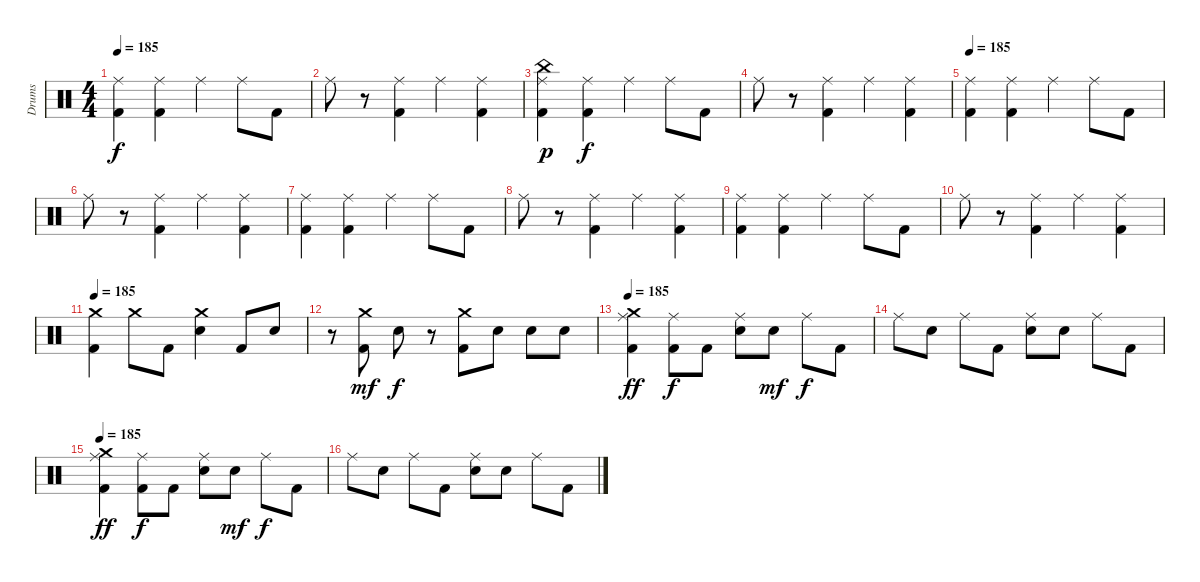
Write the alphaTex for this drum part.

\track ("Drums" "Drums") {instrument percussion}
\staff {score}
\articulation defaults
\ts (4 4)
\tempo 185
\clef neutral
\ks c
("Ride (middle)" "Kick (hit) 2").4{dy f} ("Ride (middle)" "Kick (hit) 2").4 "Ride (middle)".4 "Ride (middle)".8 "Kick (hit) 2".8 |
"Ride (middle)".8 r.8 ("Ride (middle)" "Kick (hit) 2").4 "Ride (middle)".4 ("Ride (middle)" "Kick (hit) 2").4 |
("Ride (middle)" "China (hit)" "Kick (hit) 2").4{dy p} ("Ride (middle)" "Kick (hit) 2").4{dy f} "Ride (middle)".4 "Ride (middle)".8 "Kick (hit) 2".8 |
"Ride (middle)".8 r.8 ("Ride (middle)" "Kick (hit) 2").4 "Ride (middle)".4 ("Ride (middle)" "Kick (hit) 2").4 |
\tempo 185
("Ride (middle)" "Kick (hit) 2").4 ("Ride (middle)" "Kick (hit) 2").4 "Ride (middle)".4 "Ride (middle)".8 "Kick (hit) 2".8 |
"Ride (middle)".8 r.8 ("Ride (middle)" "Kick (hit) 2").4 "Ride (middle)".4 ("Ride (middle)" "Kick (hit) 2").4 |
("Ride (middle)" "Kick (hit) 2").4 ("Ride (middle)" "Kick (hit) 2").4 "Ride (middle)".4 "Ride (middle)".8 "Kick (hit) 2".8 |
"Ride (middle)".8 r.8 ("Ride (middle)" "Kick (hit) 2").4 "Ride (middle)".4 ("Ride (middle)" "Kick (hit) 2").4 |
("Ride (middle)" "Kick (hit) 2").4 ("Ride (middle)" "Kick (hit) 2").4 "Ride (middle)".4 "Ride (middle)".8 "Kick (hit) 2".8 |
"Ride (middle)".8 r.8 ("Ride (middle)" "Kick (hit) 2").4 "Ride (middle)".4 ("Ride (middle)" "Kick (hit) 2").4 |
\tempo 185
("Crash medium (hit)" "Kick (hit) 2").4 "Crash medium (hit)".8 "Kick (hit) 2".8 ("Crash medium (hit)" "Snare (hit) 2").4 "Kick (hit) 2".8 "Snare (hit) 2".8 |
r.8 ("Crash medium (hit)" "Kick (hit) 2").8{dy mf} "Snare (hit) 2".8{dy f} r.8 ("Crash medium (hit)" "Kick (hit) 2").8 "Snare (hit) 2".8 "Snare (hit) 2".8 "Snare (hit) 2".8 |
\tempo 185
("Ride (middle)" "Crash medium (hit)" "Kick (hit) 2").4{dy ff volume 12} ("Ride (middle)" "Kick (hit) 2").8{dy f} "Kick (hit) 2".8 ("Ride (middle)" "Snare (hit) 2").8 "Snare (hit) 2".8{dy mf} "Ride (middle)".8{dy f} "Kick (hit) 2".8 |
"Ride (middle)".8 "Snare (hit) 2".8 "Ride (middle)".8 "Kick (hit) 2".8 ("Ride (middle)" "Snare (hit) 2").8 "Snare (hit) 2".8 "Ride (middle)".8 "Kick (hit) 2".8 |
\tempo 185
("Ride (middle)" "Crash medium (hit)" "Kick (hit) 2").4{dy ff volume 12} ("Ride (middle)" "Kick (hit) 2").8{dy f} "Kick (hit) 2".8 ("Ride (middle)" "Snare (hit) 2").8 "Snare (hit) 2".8{dy mf} "Ride (middle)".8{dy f} "Kick (hit) 2".8 |
"Ride (middle)".8 "Snare (hit) 2".8 "Ride (middle)".8 "Kick (hit) 2".8 ("Ride (middle)" "Snare (hit) 2").8 "Snare (hit) 2".8 "Ride (middle)".8 "Kick (hit) 2".8
